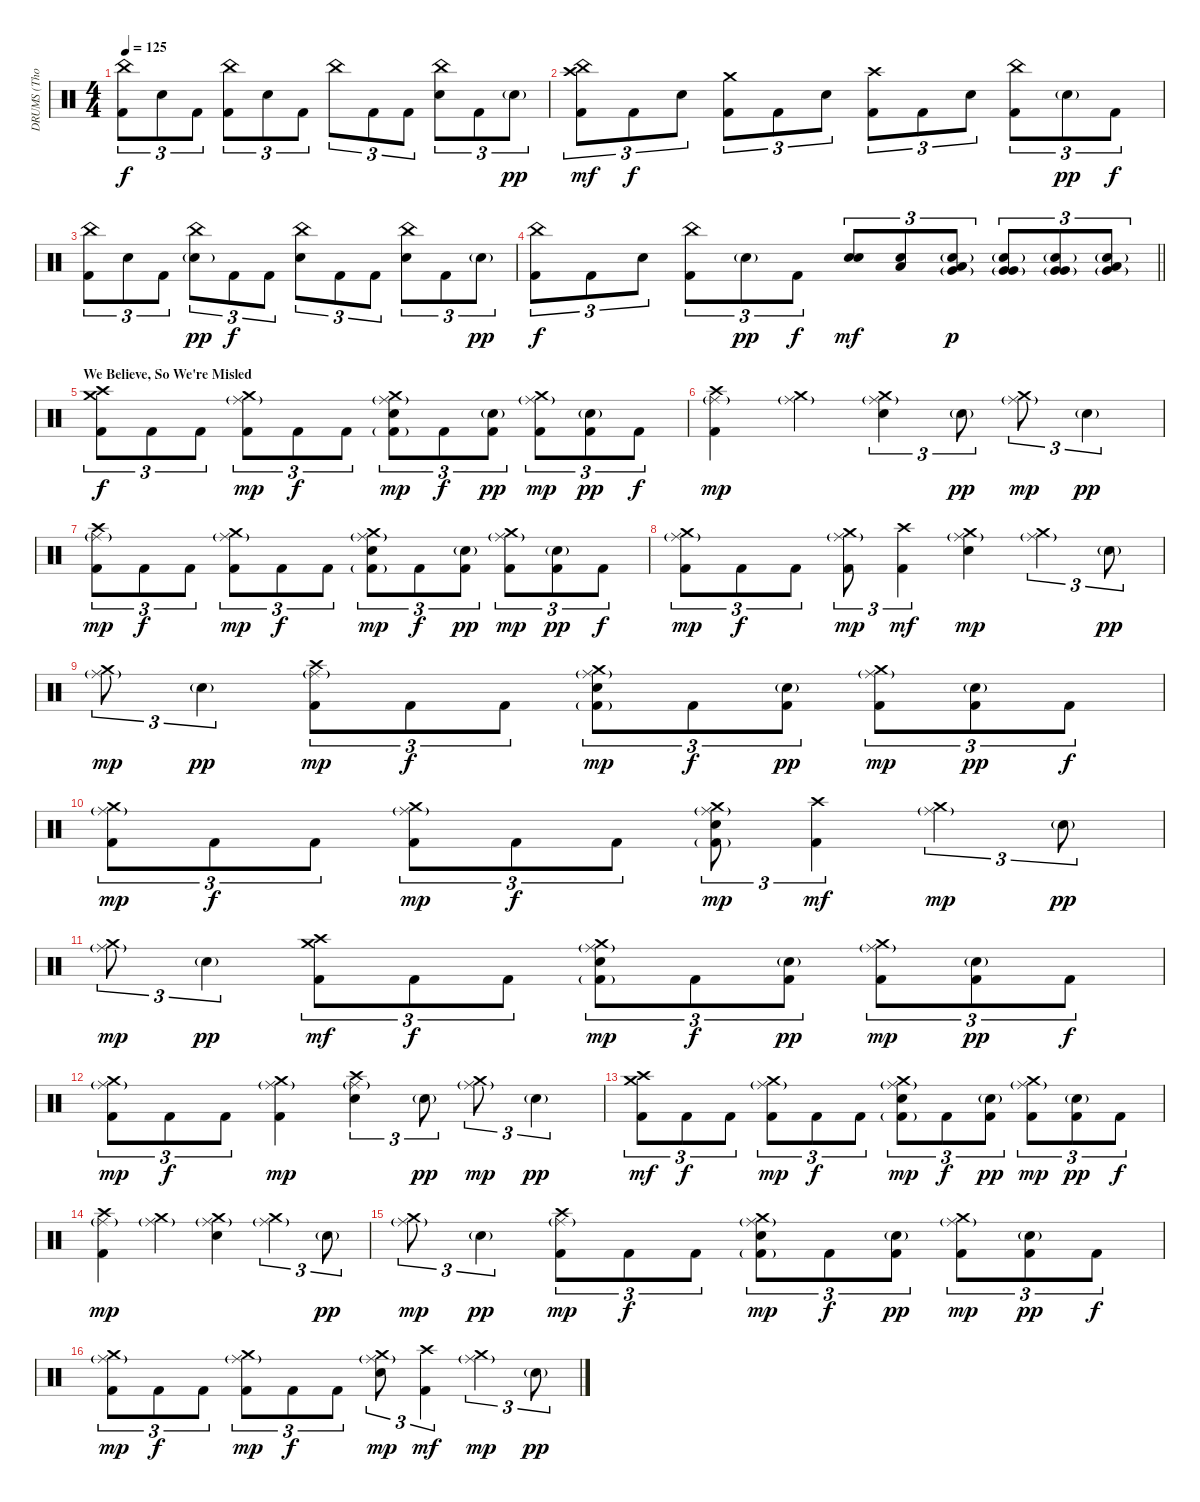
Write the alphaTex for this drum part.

\track ("DRUMS (Thomas Haake)" "DRUMS (Tho") {instrument percussion}
\staff {score}
\articulation defaults
\ts (4 4)
\tempo 125
\clef neutral
\ks c
("China (hit)" "Kick (hit) 2").8{tu (3 2) dy f} "Electric Snare (hit)".8{tu (3 2)} "Kick (hit) 2".8{tu (3 2)} ("China (hit)" "Kick (hit) 2").8{tu (3 2)} "Electric Snare (hit)".8{tu (3 2)} "Kick (hit) 2".8{tu (3 2)} "China (hit)".8{tu (3 2)} "Kick (hit) 2".8{tu (3 2)} "Kick (hit) 2".8{tu (3 2)} ("China (hit)" "Electric Snare (hit)").8{tu (3 2)} "Kick (hit) 2".8{tu (3 2)} "Electric Snare (hit)"{g}.8{tu (3 2) dy pp} |
("Crash high (hit)" "China (hit)" "Kick (hit) 2").8{tu (3 2) dy mf} "Kick (hit) 2".8{tu (3 2) dy f} "Electric Snare (hit)".8{tu (3 2)} ("Crash medium (hit)" "Kick (hit) 2").8{tu (3 2)} "Kick (hit) 2".8{tu (3 2)} "Electric Snare (hit)".8{tu (3 2)} ("Crash high (hit)" "Kick (hit) 2").8{tu (3 2)} "Kick (hit) 2".8{tu (3 2)} "Electric Snare (hit)".8{tu (3 2)} ("China (hit)" "Kick (hit) 2").8{tu (3 2)} "Electric Snare (hit)"{g}.8{tu (3 2) dy pp} "Kick (hit) 2".8{tu (3 2) dy f} |
("China (hit)" "Kick (hit) 2").8{tu (3 2)} "Electric Snare (hit)".8{tu (3 2)} "Kick (hit) 2".8{tu (3 2)} ("China (hit)" "Electric Snare (hit)"{g}).8{tu (3 2) dy pp} "Kick (hit) 2".8{tu (3 2) dy f} "Kick (hit) 2".8{tu (3 2)} ("China (hit)" "Electric Snare (hit)").8{tu (3 2)} "Kick (hit) 2".8{tu (3 2)} "Kick (hit) 2".8{tu (3 2)} ("China (hit)" "Electric Snare (hit)").8{tu (3 2)} "Kick (hit) 2".8{tu (3 2)} "Electric Snare (hit)"{g}.8{tu (3 2) dy pp} |
\barLineRight lightlight
("China (hit)" "Kick (hit) 2").8{tu (3 2) dy f} "Kick (hit) 2".8{tu (3 2)} "Electric Snare (hit)".8{tu (3 2)} ("China (hit)" "Kick (hit) 2").8{tu (3 2)} "Electric Snare (hit)"{g}.8{tu (3 2) dy pp} "Kick (hit) 2".8{tu (3 2) dy f} ("Electric Snare (hit)" "Electric Snare (hit)").8{tu (3 2) bd 30 dy mf} ("Low Tom (hit)" "Electric Snare (hit)").8{tu (3 2)} ("Low Tom (hit)" "Very Low Tom (hit)"{g} "Electric Snare (hit)"{g}).8{tu (3 2) bd 30 dy p} ("Very Low Tom (hit)" "Very Low Tom (hit)"{g} "Electric Snare (hit)"{g}).8{tu (3 2) bd 30} ("Very Low Tom (hit)" "Very Low Tom (hit)"{g} "Electric Snare (hit)"{g}).8{tu (3 2) bd 30} ("Low Floor Tom (hit)" "Very Low Tom (hit)"{g} "Electric Snare (hit)"{g}).8{tu (3 2) bd 30} |
\section ("" "We Believe, So We're Misled")
("Crash medium (hit)" "Crash high (hit)" "Kick (hit) 2").8{tu (3 2) dy f} "Kick (hit) 2".8{tu (3 2)} "Kick (hit) 2".8{tu (3 2)} ("Crash medium (hit)" "Ride (middle)"{g} "Kick (hit) 2").8{tu (3 2) dy mp} "Kick (hit) 2".8{tu (3 2) dy f} "Kick (hit) 2".8{tu (3 2)} ("Crash medium (hit)" "Ride (middle)"{g} "Electric Snare (hit)" "Kick (hit) 2"{g}).8{tu (3 2) dy mp} "Kick (hit) 2".8{tu (3 2) dy f} ("Electric Snare (hit)"{g} "Kick (hit) 2").8{tu (3 2) dy pp} ("Crash medium (hit)" "Ride (middle)"{g} "Kick (hit) 2").8{tu (3 2) dy mp} ("Electric Snare (hit)"{g} "Kick (hit) 2").8{tu (3 2) dy pp} "Kick (hit) 2".8{tu (3 2) dy f} |
("Crash high (hit)" "Ride (middle)"{g} "Kick (hit) 2").4{dy mp} ("Crash medium (hit)" "Ride (middle)"{g}).4 ("Crash medium (hit)" "Ride (middle)"{g} "Electric Snare (hit)").4{tu (3 2)} "Electric Snare (hit)"{g}.8{tu (3 2) dy pp} ("Crash medium (hit)" "Ride (middle)"{g}).8{tu (3 2) dy mp} "Electric Snare (hit)"{g}.4{tu (3 2) dy pp} |
("Crash high (hit)" "Ride (middle)"{g} "Kick (hit) 2").8{tu (3 2) dy mp} "Kick (hit) 2".8{tu (3 2) dy f} "Kick (hit) 2".8{tu (3 2)} ("Crash medium (hit)" "Ride (middle)"{g} "Kick (hit) 2").8{tu (3 2) dy mp} "Kick (hit) 2".8{tu (3 2) dy f} "Kick (hit) 2".8{tu (3 2)} ("Crash medium (hit)" "Ride (middle)"{g} "Electric Snare (hit)" "Kick (hit) 2"{g}).8{tu (3 2) dy mp} "Kick (hit) 2".8{tu (3 2) dy f} ("Electric Snare (hit)"{g} "Kick (hit) 2").8{tu (3 2) dy pp} ("Crash medium (hit)" "Ride (middle)"{g} "Kick (hit) 2").8{tu (3 2) dy mp} ("Electric Snare (hit)"{g} "Kick (hit) 2").8{tu (3 2) dy pp} "Kick (hit) 2".8{tu (3 2) dy f} |
("Crash medium (hit)" "Ride (middle)"{g} "Kick (hit) 2").8{tu (3 2) dy mp} "Kick (hit) 2".8{tu (3 2) dy f} "Kick (hit) 2".8{tu (3 2)} ("Crash medium (hit)" "Ride (middle)"{g} "Kick (hit) 2").8{tu (3 2) dy mp} ("Crash high (hit)" "Kick (hit) 2").4{tu (3 2) dy mf} ("Crash medium (hit)" "Ride (middle)"{g} "Electric Snare (hit)").4{dy mp} ("Crash medium (hit)" "Ride (middle)"{g}).4{tu (3 2)} "Electric Snare (hit)"{g}.8{tu (3 2) dy pp} |
("Crash medium (hit)" "Ride (middle)"{g}).8{tu (3 2) dy mp} "Electric Snare (hit)"{g}.4{tu (3 2) dy pp} ("Crash high (hit)" "Ride (middle)"{g} "Kick (hit) 2").8{tu (3 2) dy mp} "Kick (hit) 2".8{tu (3 2) dy f} "Kick (hit) 2".8{tu (3 2)} ("Crash medium (hit)" "Ride (middle)"{g} "Electric Snare (hit)" "Kick (hit) 2"{g}).8{tu (3 2) dy mp} "Kick (hit) 2".8{tu (3 2) dy f} ("Electric Snare (hit)"{g} "Kick (hit) 2").8{tu (3 2) dy pp} ("Crash medium (hit)" "Ride (middle)"{g} "Kick (hit) 2").8{tu (3 2) dy mp} ("Electric Snare (hit)"{g} "Kick (hit) 2").8{tu (3 2) dy pp} "Kick (hit) 2".8{tu (3 2) dy f} |
("Crash medium (hit)" "Ride (middle)"{g} "Kick (hit) 2").8{tu (3 2) dy mp} "Kick (hit) 2".8{tu (3 2) dy f} "Kick (hit) 2".8{tu (3 2)} ("Crash medium (hit)" "Ride (middle)"{g} "Kick (hit) 2").8{tu (3 2) dy mp} "Kick (hit) 2".8{tu (3 2) dy f} "Kick (hit) 2".8{tu (3 2)} ("Crash medium (hit)" "Ride (middle)"{g} "Electric Snare (hit)" "Kick (hit) 2"{g}).8{tu (3 2) dy mp} ("Crash high (hit)" "Kick (hit) 2").4{tu (3 2) dy mf} ("Crash medium (hit)" "Ride (middle)"{g}).4{tu (3 2) dy mp} "Electric Snare (hit)"{g}.8{tu (3 2) dy pp} |
("Crash medium (hit)" "Ride (middle)"{g}).8{tu (3 2) dy mp} "Electric Snare (hit)"{g}.4{tu (3 2) dy pp} ("Crash high (hit)" "Crash medium (hit)" "Kick (hit) 2").8{tu (3 2) dy mf} "Kick (hit) 2".8{tu (3 2) dy f} "Kick (hit) 2".8{tu (3 2)} ("Crash medium (hit)" "Ride (middle)"{g} "Electric Snare (hit)" "Kick (hit) 2"{g}).8{tu (3 2) dy mp} "Kick (hit) 2".8{tu (3 2) dy f} ("Electric Snare (hit)"{g} "Kick (hit) 2").8{tu (3 2) dy pp} ("Crash medium (hit)" "Ride (middle)"{g} "Kick (hit) 2").8{tu (3 2) dy mp} ("Electric Snare (hit)"{g} "Kick (hit) 2").8{tu (3 2) dy pp} "Kick (hit) 2".8{tu (3 2) dy f} |
("Crash medium (hit)" "Ride (middle)"{g} "Kick (hit) 2").8{tu (3 2) dy mp} "Kick (hit) 2".8{tu (3 2) dy f} "Kick (hit) 2".8{tu (3 2)} ("Crash medium (hit)" "Ride (middle)"{g} "Kick (hit) 2").4{dy mp} ("Crash high (hit)" "Ride (middle)"{g} "Electric Snare (hit)").4{tu (3 2)} "Electric Snare (hit)"{g}.8{tu (3 2) dy pp} ("Crash medium (hit)" "Ride (middle)"{g}).8{tu (3 2) dy mp} "Electric Snare (hit)"{g}.4{tu (3 2) dy pp} |
("Crash medium (hit)" "Crash high (hit)" "Kick (hit) 2").8{tu (3 2) dy mf} "Kick (hit) 2".8{tu (3 2) dy f} "Kick (hit) 2".8{tu (3 2)} ("Crash medium (hit)" "Ride (middle)"{g} "Kick (hit) 2").8{tu (3 2) dy mp} "Kick (hit) 2".8{tu (3 2) dy f} "Kick (hit) 2".8{tu (3 2)} ("Crash medium (hit)" "Ride (middle)"{g} "Electric Snare (hit)" "Kick (hit) 2"{g}).8{tu (3 2) dy mp} "Kick (hit) 2".8{tu (3 2) dy f} ("Electric Snare (hit)"{g} "Kick (hit) 2").8{tu (3 2) dy pp} ("Crash medium (hit)" "Ride (middle)"{g} "Kick (hit) 2").8{tu (3 2) dy mp} ("Electric Snare (hit)"{g} "Kick (hit) 2").8{tu (3 2) dy pp} "Kick (hit) 2".8{tu (3 2) dy f} |
("Crash high (hit)" "Ride (middle)"{g} "Kick (hit) 2").4{dy mp} ("Crash medium (hit)" "Ride (middle)"{g}).4 ("Crash medium (hit)" "Ride (middle)"{g} "Electric Snare (hit)").4 ("Crash medium (hit)" "Ride (middle)"{g}).4{tu (3 2)} "Electric Snare (hit)"{g}.8{tu (3 2) dy pp} |
("Crash medium (hit)" "Ride (middle)"{g}).8{tu (3 2) dy mp} "Electric Snare (hit)"{g}.4{tu (3 2) dy pp} ("Crash high (hit)" "Ride (middle)"{g} "Kick (hit) 2").8{tu (3 2) dy mp} "Kick (hit) 2".8{tu (3 2) dy f} "Kick (hit) 2".8{tu (3 2)} ("Crash medium (hit)" "Ride (middle)"{g} "Electric Snare (hit)" "Kick (hit) 2"{g}).8{tu (3 2) dy mp} "Kick (hit) 2".8{tu (3 2) dy f} ("Electric Snare (hit)"{g} "Kick (hit) 2").8{tu (3 2) dy pp} ("Crash medium (hit)" "Ride (middle)"{g} "Kick (hit) 2").8{tu (3 2) dy mp} ("Electric Snare (hit)"{g} "Kick (hit) 2").8{tu (3 2) dy pp} "Kick (hit) 2".8{tu (3 2) dy f} |
("Crash medium (hit)" "Ride (middle)"{g} "Kick (hit) 2").8{tu (3 2) dy mp} "Kick (hit) 2".8{tu (3 2) dy f} "Kick (hit) 2".8{tu (3 2)} ("Crash medium (hit)" "Ride (middle)"{g} "Kick (hit) 2").8{tu (3 2) dy mp} "Kick (hit) 2".8{tu (3 2) dy f} "Kick (hit) 2".8{tu (3 2)} ("Crash medium (hit)" "Ride (middle)"{g} "Electric Snare (hit)").8{tu (3 2) dy mp} ("Crash high (hit)" "Kick (hit) 2").4{tu (3 2) dy mf} ("Crash medium (hit)" "Ride (middle)"{g}).4{tu (3 2) dy mp} "Electric Snare (hit)"{g}.8{tu (3 2) dy pp}
